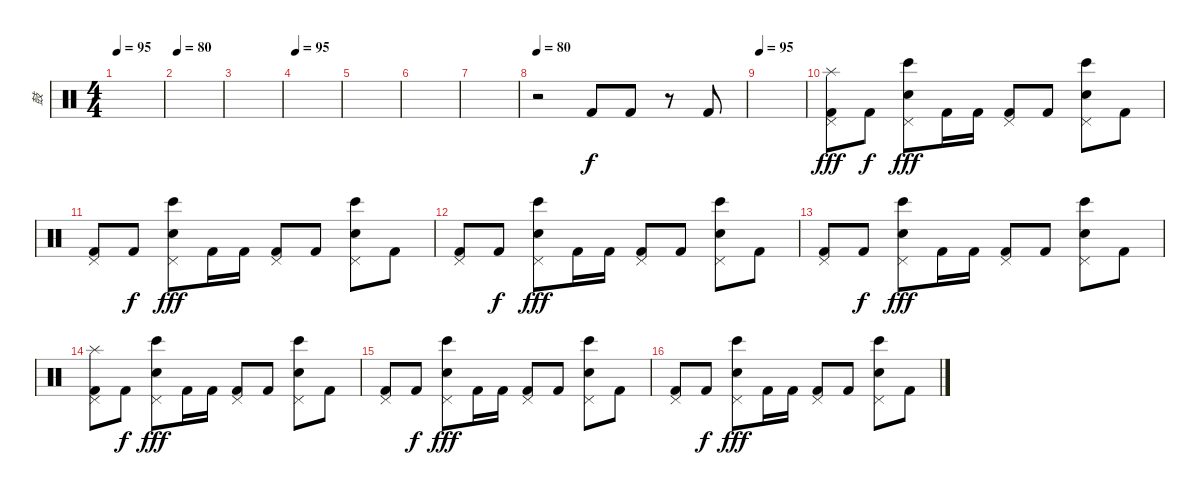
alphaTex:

\track ("鼓" "鼓") {instrument percussion}
\staff {score}
\articulation defaults
\ts (4 4)
\tempo 95
\clef neutral
\ks c
|
\tempo 80
|
|
\tempo 95
|
|
|
|
\tempo 80
r.2 "Kick (hit) 2".8 "Kick (hit) 2".8 r.8 "Kick (hit) 2".8 |
\tempo 95
|
("Pedal Hi-Hat (hit)" "Splash (hit)" "Kick (hit) 2").8{dy fff} "Kick (hit) 2".8{dy f} ("Pedal Hi-Hat (hit)" "Electric Snare (hit)" "Bongo High (hit)").8{dy fff} "Kick (hit) 2".16 "Kick (hit) 2".16 ("Pedal Hi-Hat (hit)" "Kick (hit) 2").8 "Kick (hit) 2".8 ("Pedal Hi-Hat (hit)" "Electric Snare (hit)" "Bongo High (hit)").8 "Kick (hit) 2".8 |
("Pedal Hi-Hat (hit)" "Kick (hit) 2").8 "Kick (hit) 2".8{dy f} ("Pedal Hi-Hat (hit)" "Electric Snare (hit)" "Bongo High (hit)").8{dy fff} "Kick (hit) 2".16 "Kick (hit) 2".16 ("Pedal Hi-Hat (hit)" "Kick (hit) 2").8 "Kick (hit) 2".8 ("Pedal Hi-Hat (hit)" "Electric Snare (hit)" "Bongo High (hit)").8 "Kick (hit) 2".8 |
("Pedal Hi-Hat (hit)" "Kick (hit) 2").8 "Kick (hit) 2".8{dy f} ("Pedal Hi-Hat (hit)" "Electric Snare (hit)" "Bongo High (hit)").8{dy fff} "Kick (hit) 2".16 "Kick (hit) 2".16 ("Pedal Hi-Hat (hit)" "Kick (hit) 2").8 "Kick (hit) 2".8 ("Pedal Hi-Hat (hit)" "Electric Snare (hit)" "Bongo High (hit)").8 "Kick (hit) 2".8 |
("Pedal Hi-Hat (hit)" "Kick (hit) 2").8 "Kick (hit) 2".8{dy f} ("Pedal Hi-Hat (hit)" "Electric Snare (hit)" "Bongo High (hit)").8{dy fff} "Kick (hit) 2".16 "Kick (hit) 2".16 ("Pedal Hi-Hat (hit)" "Kick (hit) 2").8 "Kick (hit) 2".8 ("Pedal Hi-Hat (hit)" "Electric Snare (hit)" "Bongo High (hit)").8 "Kick (hit) 2".8 |
("Pedal Hi-Hat (hit)" "Splash (hit)" "Kick (hit) 2").8 "Kick (hit) 2".8{dy f} ("Pedal Hi-Hat (hit)" "Electric Snare (hit)" "Bongo High (hit)").8{dy fff} "Kick (hit) 2".16 "Kick (hit) 2".16 ("Pedal Hi-Hat (hit)" "Kick (hit) 2").8 "Kick (hit) 2".8 ("Pedal Hi-Hat (hit)" "Electric Snare (hit)" "Bongo High (hit)").8 "Kick (hit) 2".8 |
("Pedal Hi-Hat (hit)" "Kick (hit) 2").8 "Kick (hit) 2".8{dy f} ("Pedal Hi-Hat (hit)" "Electric Snare (hit)" "Bongo High (hit)").8{dy fff} "Kick (hit) 2".16 "Kick (hit) 2".16 ("Pedal Hi-Hat (hit)" "Kick (hit) 2").8 "Kick (hit) 2".8 ("Pedal Hi-Hat (hit)" "Electric Snare (hit)" "Bongo High (hit)").8 "Kick (hit) 2".8 |
("Pedal Hi-Hat (hit)" "Kick (hit) 2").8 "Kick (hit) 2".8{dy f} ("Pedal Hi-Hat (hit)" "Electric Snare (hit)" "Bongo High (hit)").8{dy fff} "Kick (hit) 2".16 "Kick (hit) 2".16 ("Pedal Hi-Hat (hit)" "Kick (hit) 2").8 "Kick (hit) 2".8 ("Pedal Hi-Hat (hit)" "Electric Snare (hit)" "Bongo High (hit)").8 "Kick (hit) 2".8
